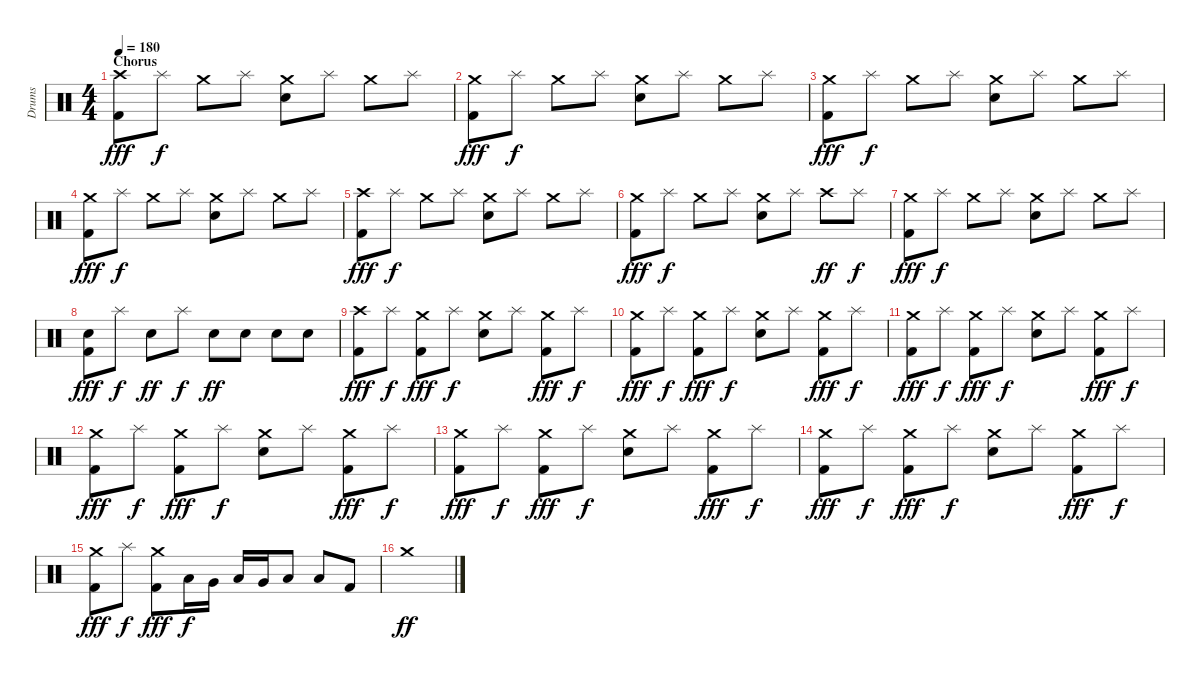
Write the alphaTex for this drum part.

\track ("Drums" "Drums") {instrument percussion}
\staff {score}
\articulation defaults
\ts (4 4)
\section ("" "Chorus")
\tempo 180
\clef neutral
\ks c
("Crash high (hit)" "Kick (hit) 2").8{dy fff} "Splash (hit)".8{dy f} "Crash medium (hit)".8 "Splash (hit)".8 ("Crash medium (hit)" "Electric Snare (hit)").8 "Splash (hit)".8 "Crash medium (hit)".8 "Splash (hit)".8 |
("Crash medium (hit)" "Kick (hit) 2").8{dy fff} "Splash (hit)".8{dy f} "Crash medium (hit)".8 "Splash (hit)".8 ("Crash medium (hit)" "Electric Snare (hit)").8 "Splash (hit)".8 "Crash medium (hit)".8 "Splash (hit)".8 |
("Crash medium (hit)" "Kick (hit) 2").8{dy fff} "Splash (hit)".8{dy f} "Crash medium (hit)".8 "Splash (hit)".8 ("Crash medium (hit)" "Electric Snare (hit)").8 "Splash (hit)".8 "Crash medium (hit)".8 "Splash (hit)".8 |
("Crash medium (hit)" "Kick (hit) 2").8{dy fff} "Splash (hit)".8{dy f} "Crash medium (hit)".8 "Splash (hit)".8 ("Crash medium (hit)" "Electric Snare (hit)").8 "Splash (hit)".8 "Crash medium (hit)".8 "Splash (hit)".8 |
("Crash high (hit)" "Kick (hit) 2").8{dy fff} "Splash (hit)".8{dy f} "Crash medium (hit)".8 "Splash (hit)".8 ("Crash medium (hit)" "Electric Snare (hit)").8 "Splash (hit)".8 "Crash medium (hit)".8 "Splash (hit)".8 |
("Crash medium (hit)" "Kick (hit) 2").8{dy fff} "Splash (hit)".8{dy f} "Crash medium (hit)".8 "Splash (hit)".8 ("Crash medium (hit)" "Electric Snare (hit)").8 "Splash (hit)".8 "Crash high (hit)".8{dy ff} "Splash (hit)".8{dy f} |
("Crash medium (hit)" "Kick (hit) 2").8{dy fff} "Splash (hit)".8{dy f} "Crash medium (hit)".8 "Splash (hit)".8 ("Crash medium (hit)" "Electric Snare (hit)").8 "Splash (hit)".8 "Crash medium (hit)".8 "Splash (hit)".8 |
("Electric Snare (hit)" "Kick (hit) 2").8{dy fff} "Splash (hit)".8{dy f} "Electric Snare (hit)".8{dy ff} "Splash (hit)".8{dy f} "Electric Snare (hit)".8{dy ff} "Electric Snare (hit)".8 "Electric Snare (hit)".8 "Electric Snare (hit)".8 |
("Crash high (hit)" "Kick (hit) 2").8{dy fff} "Splash (hit)".8{dy f} ("Crash medium (hit)" "Kick (hit) 2").8{dy fff} "Splash (hit)".8{dy f} ("Crash medium (hit)" "Electric Snare (hit)").8 "Splash (hit)".8 ("Crash medium (hit)" "Kick (hit) 2").8{dy fff} "Splash (hit)".8{dy f} |
("Crash medium (hit)" "Kick (hit) 2").8{dy fff} "Splash (hit)".8{dy f} ("Crash medium (hit)" "Kick (hit) 2").8{dy fff} "Splash (hit)".8{dy f} ("Crash medium (hit)" "Electric Snare (hit)").8 "Splash (hit)".8 ("Crash medium (hit)" "Kick (hit) 2").8{dy fff} "Splash (hit)".8{dy f} |
("Crash medium (hit)" "Kick (hit) 2").8{dy fff} "Splash (hit)".8{dy f} ("Crash medium (hit)" "Kick (hit) 2").8{dy fff} "Splash (hit)".8{dy f} ("Crash medium (hit)" "Electric Snare (hit)").8 "Splash (hit)".8 ("Crash medium (hit)" "Kick (hit) 2").8{dy fff} "Splash (hit)".8{dy f} |
("Crash medium (hit)" "Kick (hit) 2").8{dy fff} "Splash (hit)".8{dy f} ("Crash medium (hit)" "Kick (hit) 2").8{dy fff} "Splash (hit)".8{dy f} ("Crash medium (hit)" "Electric Snare (hit)").8 "Splash (hit)".8 ("Crash medium (hit)" "Kick (hit) 2").8{dy fff} "Splash (hit)".8{dy f} |
("Crash medium (hit)" "Kick (hit) 2").8{dy fff} "Splash (hit)".8{dy f} ("Crash medium (hit)" "Kick (hit) 2").8{dy fff} "Splash (hit)".8{dy f} ("Crash medium (hit)" "Electric Snare (hit)").8 "Splash (hit)".8 ("Crash medium (hit)" "Kick (hit) 2").8{dy fff} "Splash (hit)".8{dy f} |
("Crash medium (hit)" "Kick (hit) 2").8{dy fff} "Splash (hit)".8{dy f} ("Crash medium (hit)" "Kick (hit) 2").8{dy fff} "Splash (hit)".8{dy f} ("Crash medium (hit)" "Electric Snare (hit)").8 "Splash (hit)".8 ("Crash medium (hit)" "Kick (hit) 2").8{dy fff} "Splash (hit)".8{dy f} |
("Crash medium (hit)" "Kick (hit) 2").8{dy fff} "Splash (hit)".8{dy f} ("Crash medium (hit)" "Kick (hit) 2").8{dy fff} "Low Tom (hit)".16{dy f} "Very Low Tom (hit)".16 "Low Floor Tom (hit)".16 "Very Low Tom (hit)".16 "Low Tom (hit)".8 "Low Floor Tom (hit)".8 "Kick (hit) 2".8 |
"Crash medium (hit)".1{dy ff}
